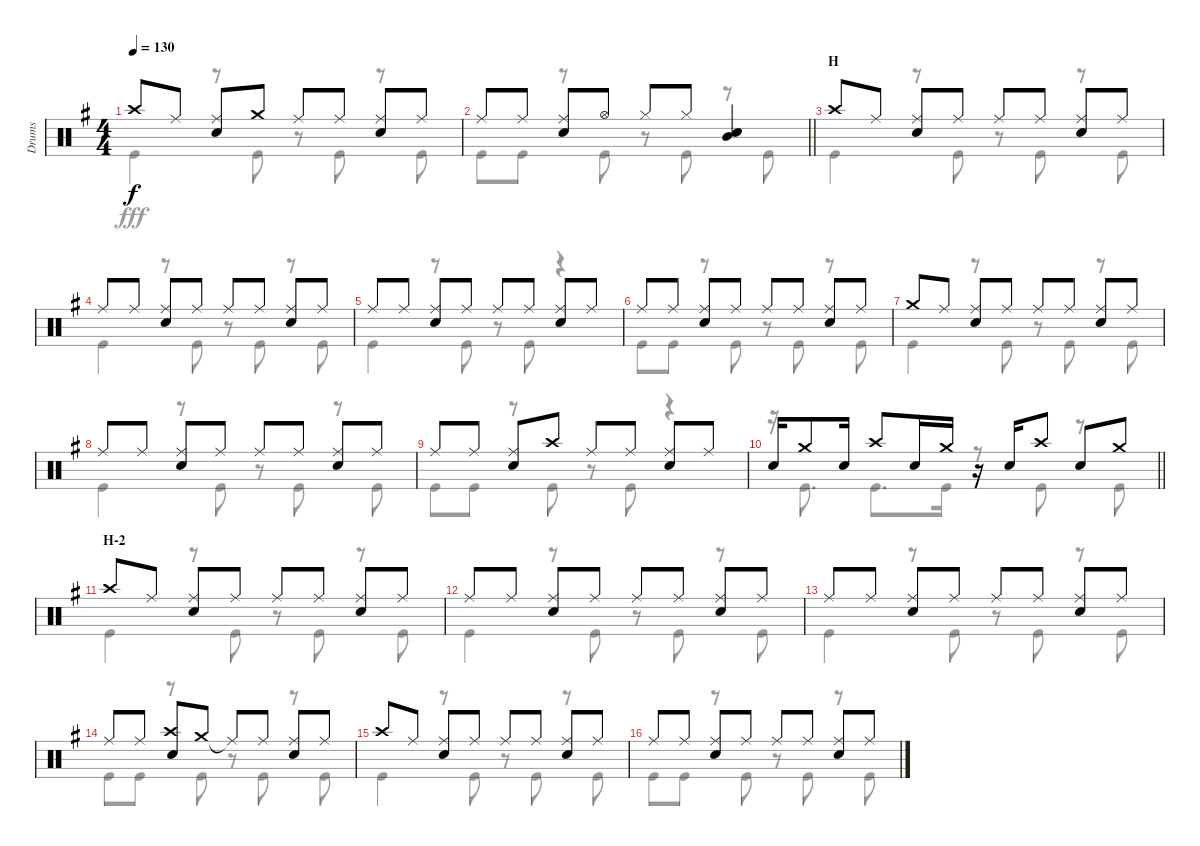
\track ("Drums" "Drums") {instrument percussion}
\staff {score}
\articulation defaults
\voice
\ts (4 4)
\tempo 130
\clef neutral
\ks g "Crash high (hit)".8{dy f} "Ride (middle)".8
("Ride (middle)" "Snare (hit) 2").8 "Crash medium (hit)".8 "Ride (middle)".8 "Ride (middle)".8 ("Ride (middle)" "Snare (hit) 2").8 "Ride (middle)".8 |
\barLineRight lightlight "Ride (middle)".8 "Ride (middle)".8
("Ride (middle)" "Snare (hit) 2").8 "Hi-Hat (open)".8 "Hi-Hat (closed)".8 "Hi-Hat (closed)".8 ("Mid Tom (hit)" "Snare (hit) 2").4 |
\section ("" "H")
"Crash high (hit)".8 "Ride (middle)".8 ("Ride (middle)" "Snare (hit) 2").8 "Ride (middle)".8 "Ride (middle)".8 "Ride (middle)".8 ("Ride (middle)" "Snare (hit) 2").8 "Ride (middle)".8 |
"Ride (middle)".8 "Ride (middle)".8 ("Ride (middle)" "Snare (hit) 2").8 "Ride (middle)".8 "Ride (middle)".8 "Ride (middle)".8 ("Ride (middle)" "Snare (hit) 2").8 "Ride (middle)".8 |
"Ride (middle)".8 "Ride (middle)".8 ("Ride (middle)" "Snare (hit) 2").8 "Ride (middle)".8 "Ride (middle)".8 "Ride (middle)".8 ("Ride (middle)" "Snare (hit) 2").8 "Ride (middle)".8 |
"Ride (middle)".8 "Ride (middle)".8 ("Ride (middle)" "Snare (hit) 2").8 "Ride (middle)".8 "Ride (middle)".8 "Ride (middle)".8 ("Ride (middle)" "Snare (hit) 2").8 "Ride (middle)".8 |
"Crash medium (hit)".8 "Ride (middle)".8 ("Ride (middle)" "Snare (hit) 2").8 "Ride (middle)".8 "Ride (middle)".8 "Ride (middle)".8 ("Ride (middle)" "Snare (hit) 2").8 "Ride (middle)".8 |
"Ride (middle)".8 "Ride (middle)".8 ("Ride (middle)" "Snare (hit) 2").8 "Ride (middle)".8 "Ride (middle)".8 "Ride (middle)".8 ("Ride (middle)" "Snare (hit) 2").8 "Ride (middle)".8 |
"Ride (middle)".8 "Ride (middle)".8 ("Ride (middle)" "Snare (hit) 2").8 "Crash high (hit)".8 "Ride (middle)".8 "Ride (middle)".8 ("Ride (middle)" "Snare (hit) 2").8 "Ride (middle)".8 |
\barLineRight lightlight "Snare (hit) 2".16 "Crash medium (hit)".8 "Snare (hit) 2".16 "Crash high (hit)".8 "Snare (hit) 2".16 "Crash medium (hit)".16
r.16 "Snare (hit) 2".16 "Crash high (hit)".8 "Snare (hit) 2".8 "Crash medium (hit)".8 |
\section ("" "H-2")
"Crash high (hit)".8 "Ride (middle)".8 ("Ride (middle)" "Snare (hit) 2").8 "Ride (middle)".8 "Ride (middle)".8 "Ride (middle)".8 ("Ride (middle)" "Snare (hit) 2").8 "Ride (middle)".8 |
"Ride (middle)".8 "Ride (middle)".8 ("Ride (middle)" "Snare (hit) 2").8 "Ride (middle)".8 "Ride (middle)".8 "Ride (middle)".8 ("Ride (middle)" "Snare (hit) 2").8 "Ride (middle)".8 |
"Ride (middle)".8 "Ride (middle)".8 ("Ride (middle)" "Snare (hit) 2").8 "Ride (middle)".8 "Ride (middle)".8 "Ride (middle)".8 ("Ride (middle)" "Snare (hit) 2").8 "Ride (middle)".8 |
"Ride (middle)".8 "Ride (middle)".8 ("Crash high (hit)" "Snare (hit) 2").8 "Crash medium (hit)".8 "Ride (middle)"{t}.8 "Ride (middle)".8 ("Ride (middle)" "Snare (hit) 2").8 "Ride (middle)".8 |
"Crash high (hit)".8 "Ride (middle)".8 ("Ride (middle)" "Snare (hit) 2").8 "Ride (middle)".8 "Ride (middle)".8 "Ride (middle)".8 ("Ride (middle)" "Snare (hit) 2").8 "Ride (middle)".8 |
"Ride (middle)".8 "Ride (middle)".8 ("Ride (middle)" "Snare (hit) 2").8 "Ride (middle)".8 "Ride (middle)".8 "Ride (middle)".8 ("Ride (middle)" "Snare (hit) 2").8 "Ride (middle)".8
\voice
\clef neutral
\ottava regular
\simile none
\ks g "Kick (hit)".4{dy fff}
r.8 "Kick (hit)".8 r.8 "Kick (hit)".8 r.8 "Kick (hit)".8 |
\barLineRight lightlight "Kick (hit)".8 "Kick (hit)".8
r.8 "Kick (hit)".8 r.8 "Kick (hit)".8 r.8 "Kick (hit)".8 |
"Kick (hit)".4 r.8 "Kick (hit)".8 r.8 "Kick (hit)".8 r.8 "Kick (hit)".8 |
"Kick (hit)".4 r.8 "Kick (hit)".8 r.8 "Kick (hit)".8 r.8 "Kick (hit)".8 |
"Kick (hit)".4 r.8 "Kick (hit)".8 r.8 "Kick (hit)".8 r.4 |
"Kick (hit)".8 "Kick (hit)".8 r.8 "Kick (hit)".8 r.8 "Kick (hit)".8 r.8 "Kick (hit)".8 |
"Kick (hit)".4 r.8 "Kick (hit)".8 r.8 "Kick (hit)".8 r.8 "Kick (hit)".8 |
"Kick (hit)".4 r.8 "Kick (hit)".8 r.8 "Kick (hit)".8 r.8 "Kick (hit)".8 |
"Kick (hit)".8 "Kick (hit)".8 r.8 "Kick (hit)".8 r.8 "Kick (hit)".8 r.4 |
\barLineRight lightlight
r.16 "Kick (hit)".8{d} "Kick (hit)".8{d} "Kick (hit)".16 r.8 "Kick (hit)".8 r.8 "Kick (hit)".8 |
"Kick (hit)".4 r.8 "Kick (hit)".8 r.8 "Kick (hit)".8 r.8 "Kick (hit)".8 |
"Kick (hit)".4 r.8 "Kick (hit)".8 r.8 "Kick (hit)".8 r.8 "Kick (hit)".8 |
"Kick (hit)".4 r.8 "Kick (hit)".8 r.8 "Kick (hit)".8 r.8 "Kick (hit)".8 |
"Kick (hit)".8 "Kick (hit)".8 r.8 "Kick (hit)".8 r.8 "Kick (hit)".8 r.8 "Kick (hit)".8 |
"Kick (hit)".4 r.8 "Kick (hit)".8 r.8 "Kick (hit)".8 r.8 "Kick (hit)".8 |
"Kick (hit)".8 "Kick (hit)".8 r.8 "Kick (hit)".8 r.8 "Kick (hit)".8 r.8 "Kick (hit)".8
